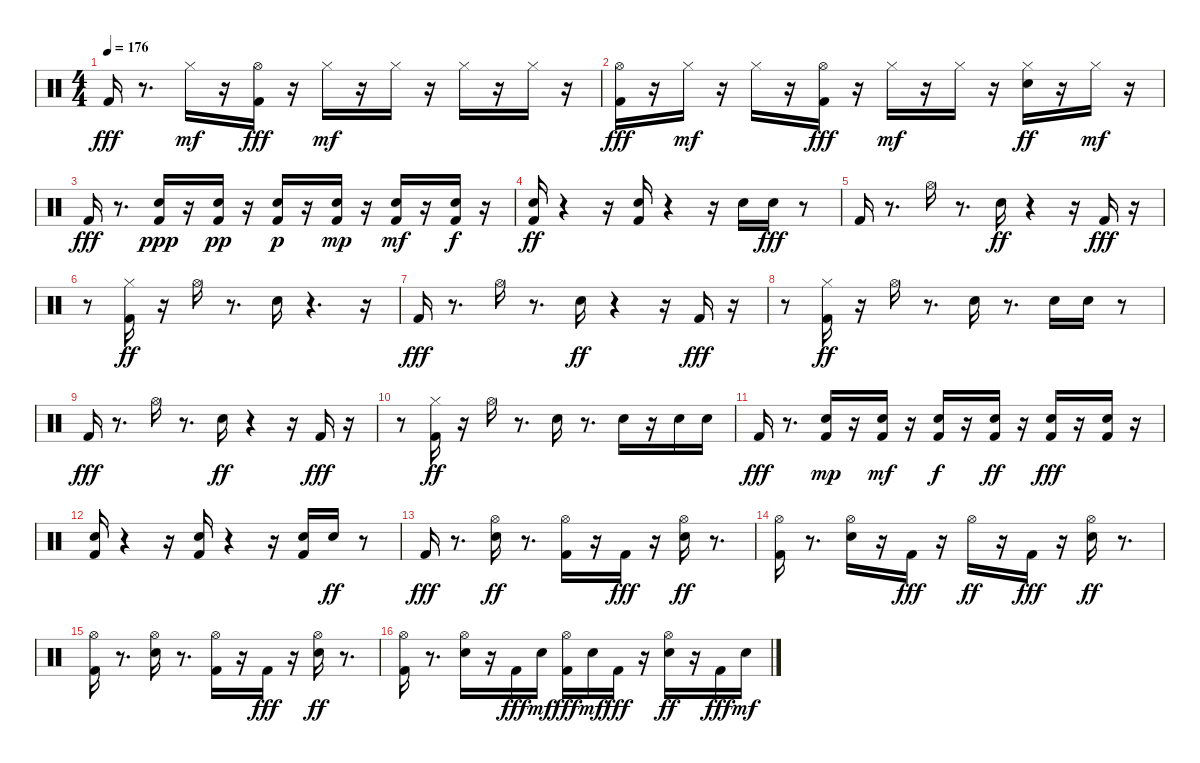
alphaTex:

\track "" {instrument percussion}
\staff {score}
\articulation defaults
\ts (4 4)
\tempo 176
\clef neutral
\ks c "Kick (hit) 2".16{dy fff}
r.8{d} "Hi-Hat (closed)".16{dy mf} r.16 ("Hi-Hat (open)" "Kick (hit) 2").16{dy fff} r.16 "Hi-Hat (closed)".16{dy mf} r.16 "Hi-Hat (closed)".16 r.16 "Hi-Hat (closed)".16 r.16 "Hi-Hat (closed)".16 r.16 |
("Hi-Hat (open)" "Kick (hit) 2").16{dy fff} r.16 "Hi-Hat (closed)".16{dy mf} r.16 "Hi-Hat (closed)".16 r.16 ("Hi-Hat (open)" "Kick (hit) 2").16{dy fff} r.16 "Hi-Hat (closed)".16{dy mf} r.16 "Hi-Hat (closed)".16 r.16 ("Hi-Hat (closed)" "Electric Snare (hit)").16{dy ff} r.16 "Hi-Hat (closed)".16{dy mf} r.16 |
"Kick (hit) 2".16{dy fff} r.8{d} ("Kick (hit) 2" "Electric Snare (hit)").16{dy ppp} r.16 ("Kick (hit) 2" "Electric Snare (hit)").16{dy pp} r.16 ("Kick (hit) 2" "Electric Snare (hit)").16{dy p} r.16 ("Kick (hit) 2" "Electric Snare (hit)").16{dy mp} r.16 ("Kick (hit) 2" "Electric Snare (hit)").16{dy mf} r.16 ("Kick (hit) 2" "Electric Snare (hit)").16{dy f} r.16 |
("Kick (hit) 2" "Electric Snare (hit)").16{dy ff} r.4 r.16 ("Kick (hit) 2" "Electric Snare (hit)").16 r.4 r.16 "Electric Snare (hit)".16 "Electric Snare (hit)".16{dy fff} r.8 |
"Kick (hit) 2".16 r.8{d} "Hi-Hat (open)".16 r.8{d} "Electric Snare (hit)".16{dy ff} r.4 r.16 "Kick (hit) 2".16{dy fff} r.16 |
r.8 ("Kick (hit) 2" "Hi-Hat (closed)").16{dy ff} r.16 "Hi-Hat (open)".16 r.8{d} "Electric Snare (hit)".16 r.4{d} r.16 |
"Kick (hit) 2".16{dy fff} r.8{d} "Hi-Hat (open)".16 r.8{d} "Electric Snare (hit)".16{dy ff} r.4 r.16 "Kick (hit) 2".16{dy fff} r.16 |
r.8 ("Kick (hit) 2" "Hi-Hat (closed)").16{dy ff} r.16 "Hi-Hat (open)".16 r.8{d} "Electric Snare (hit)".16 r.8{d} "Electric Snare (hit)".16 "Electric Snare (hit)".16 r.8 |
"Kick (hit) 2".16{dy fff} r.8{d} "Hi-Hat (open)".16 r.8{d} "Electric Snare (hit)".16{dy ff} r.4 r.16 "Kick (hit) 2".16{dy fff} r.16 |
r.8 ("Kick (hit) 2" "Hi-Hat (closed)").16{dy ff} r.16 "Hi-Hat (open)".16 r.8{d} "Electric Snare (hit)".16 r.8{d} "Electric Snare (hit)".16 r.16 "Electric Snare (hit)".16 "Electric Snare (hit)".16 |
"Kick (hit) 2".16{dy fff} r.8{d} ("Electric Snare (hit)" "Kick (hit) 2").16{dy mp} r.16 ("Electric Snare (hit)" "Kick (hit) 2").16{dy mf} r.16 ("Electric Snare (hit)" "Kick (hit) 2").16{dy f} r.16 ("Electric Snare (hit)" "Kick (hit) 2").16{dy ff} r.16 ("Electric Snare (hit)" "Kick (hit) 2").16{dy fff} r.16 ("Kick (hit) 2" "Electric Snare (hit)").16 r.16 |
("Kick (hit) 2" "Electric Snare (hit)").16 r.4 r.16 ("Kick (hit) 2" "Electric Snare (hit)").16 r.4 r.16 ("Kick (hit) 2" "Electric Snare (hit)").16 "Electric Snare (hit)".16{dy ff} r.8 |
"Kick (hit) 2".16{dy fff} r.8{d} ("Electric Snare (hit)" "Hi-Hat (open)").16{dy ff} r.8{d} ("Kick (hit) 2" "Hi-Hat (open)").16 r.16 "Kick (hit) 2".16{dy fff} r.16 ("Electric Snare (hit)" "Hi-Hat (open)").16{dy ff} r.8{d} |
("Kick (hit) 2" "Hi-Hat (open)").16 r.8{d} ("Electric Snare (hit)" "Hi-Hat (open)").16 r.16 "Kick (hit) 2".16{dy fff} r.16 "Hi-Hat (open)".16{dy ff} r.16 "Kick (hit) 2".16{dy fff} r.16 ("Electric Snare (hit)" "Hi-Hat (open)").16{dy ff} r.8{d} |
("Kick (hit) 2" "Hi-Hat (open)").16 r.8{d} ("Electric Snare (hit)" "Hi-Hat (open)").16 r.8{d} ("Kick (hit) 2" "Hi-Hat (open)").16 r.16 "Kick (hit) 2".16{dy fff} r.16 ("Electric Snare (hit)" "Hi-Hat (open)").16{dy ff} r.8{d} |
("Kick (hit) 2" "Hi-Hat (open)").16 r.8{d} ("Electric Snare (hit)" "Hi-Hat (open)").16 r.16 "Kick (hit) 2".16{dy fff} "Electric Snare (hit)".16{dy mf} ("Hi-Hat (open)" "Kick (hit) 2").16{dy fff} "Electric Snare (hit)".16{dy mf} "Kick (hit) 2".16{dy fff} r.16 ("Electric Snare (hit)" "Hi-Hat (open)").16{dy ff} r.16 "Kick (hit) 2".16{dy fff} "Electric Snare (hit)".16{dy mf}
